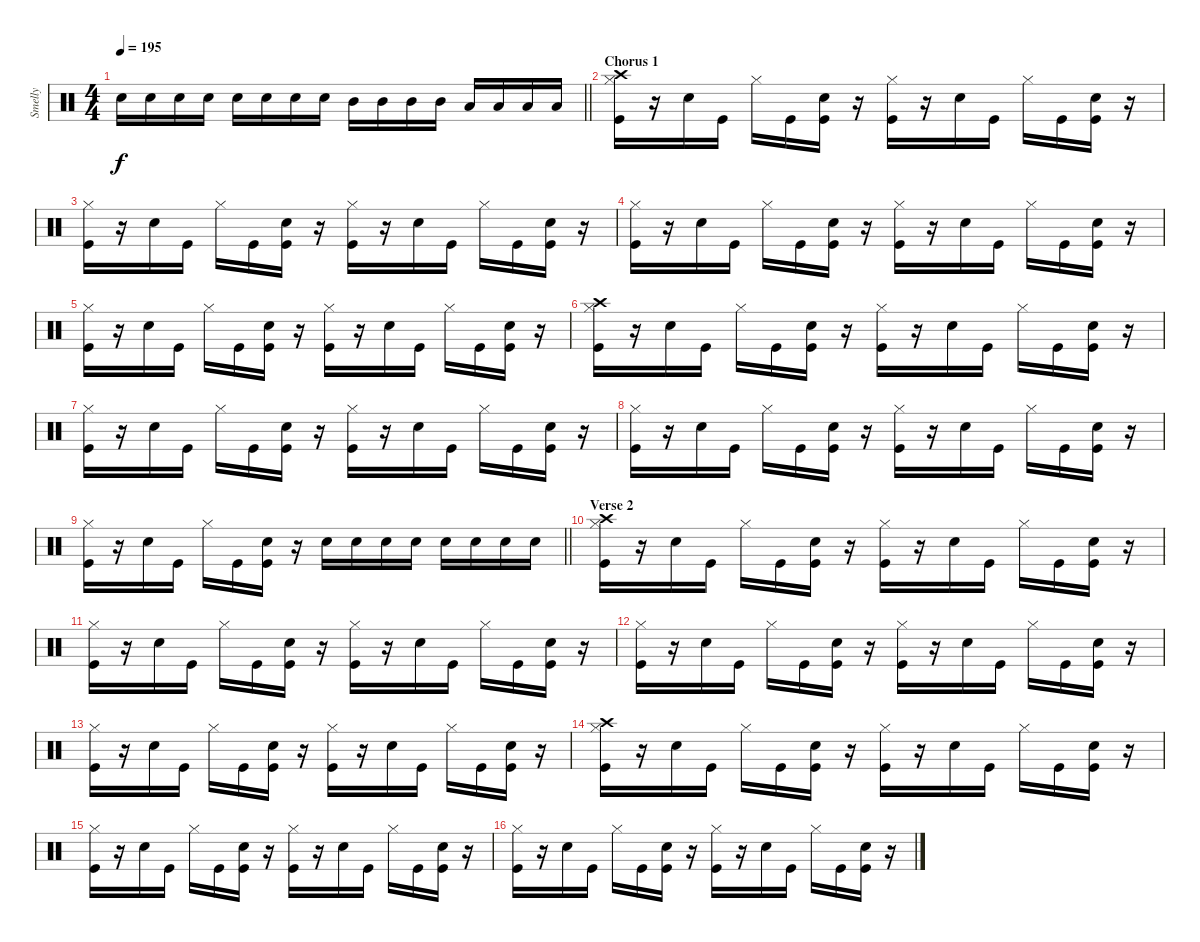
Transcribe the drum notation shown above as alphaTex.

\track ("Smelly" "Smelly") {instrument percussion}
\staff {score}
\articulation defaults
\ts (4 4)
\tempo 195
\clef neutral
\barLineRight lightlight
\ks c "Snare (hit) 2".16{dy f} "Snare (hit) 2".16 "Snare (hit) 2".16 "Snare (hit) 2".16 "Snare (hit) 2".16 "Snare (hit) 2".16 "Snare (hit) 2".16 "Snare (hit) 2".16 "Mid Tom (hit)".16 "Mid Tom (hit)".16 "Mid Tom (hit)".16 "Mid Tom (hit)".16 "Low Tom (hit)".16 "Low Tom (hit)".16 "Low Tom (hit)".16 "Low Tom (hit)".16
|
\section ("" "Chorus 1")
("Crash high (hit)" "Hi-Hat (closed)" "Kick (hit)").16 r.16 "Snare (hit) 2".16 "Kick (hit)".16 "Hi-Hat (closed)".16 "Kick (hit)".16 ("Snare (hit) 2" "Kick (hit)").16 r.16 ("Hi-Hat (closed)" "Kick (hit)").16 r.16 "Snare (hit) 2".16 "Kick (hit)".16 "Hi-Hat (closed)".16 "Kick (hit)".16 ("Snare (hit) 2" "Kick (hit)").16 r.16 |
("Hi-Hat (closed)" "Kick (hit)").16 r.16 "Snare (hit) 2".16 "Kick (hit)".16 "Hi-Hat (closed)".16 "Kick (hit)".16 ("Snare (hit) 2" "Kick (hit)").16 r.16 ("Hi-Hat (closed)" "Kick (hit)").16 r.16 "Snare (hit) 2".16 "Kick (hit)".16 "Hi-Hat (closed)".16 "Kick (hit)".16 ("Snare (hit) 2" "Kick (hit)").16 r.16 |
("Hi-Hat (closed)" "Kick (hit)").16 r.16 "Snare (hit) 2".16 "Kick (hit)".16 "Hi-Hat (closed)".16 "Kick (hit)".16 ("Snare (hit) 2" "Kick (hit)").16 r.16 ("Hi-Hat (closed)" "Kick (hit)").16 r.16 "Snare (hit) 2".16 "Kick (hit)".16 "Hi-Hat (closed)".16 "Kick (hit)".16 ("Snare (hit) 2" "Kick (hit)").16 r.16 |
("Hi-Hat (closed)" "Kick (hit)").16 r.16 "Snare (hit) 2".16 "Kick (hit)".16 "Hi-Hat (closed)".16 "Kick (hit)".16 ("Snare (hit) 2" "Kick (hit)").16 r.16 ("Hi-Hat (closed)" "Kick (hit)").16 r.16 "Snare (hit) 2".16 "Kick (hit)".16 "Hi-Hat (closed)".16 "Kick (hit)".16 ("Snare (hit) 2" "Kick (hit)").16 r.16 |
("Crash high (hit)" "Hi-Hat (closed)" "Kick (hit)").16 r.16 "Snare (hit) 2".16 "Kick (hit)".16 "Hi-Hat (closed)".16 "Kick (hit)".16 ("Snare (hit) 2" "Kick (hit)").16 r.16 ("Hi-Hat (closed)" "Kick (hit)").16 r.16 "Snare (hit) 2".16 "Kick (hit)".16 "Hi-Hat (closed)".16 "Kick (hit)".16 ("Snare (hit) 2" "Kick (hit)").16 r.16 |
("Hi-Hat (closed)" "Kick (hit)").16 r.16 "Snare (hit) 2".16 "Kick (hit)".16 "Hi-Hat (closed)".16 "Kick (hit)".16 ("Snare (hit) 2" "Kick (hit)").16 r.16 ("Hi-Hat (closed)" "Kick (hit)").16 r.16 "Snare (hit) 2".16 "Kick (hit)".16 "Hi-Hat (closed)".16 "Kick (hit)".16 ("Snare (hit) 2" "Kick (hit)").16 r.16 |
("Hi-Hat (closed)" "Kick (hit)").16 r.16 "Snare (hit) 2".16 "Kick (hit)".16 "Hi-Hat (closed)".16 "Kick (hit)".16 ("Snare (hit) 2" "Kick (hit)").16 r.16 ("Hi-Hat (closed)" "Kick (hit)").16 r.16 "Snare (hit) 2".16 "Kick (hit)".16 "Hi-Hat (closed)".16 "Kick (hit)".16 ("Snare (hit) 2" "Kick (hit)").16 r.16 |
\barLineRight lightlight
("Hi-Hat (closed)" "Kick (hit)").16 r.16 "Snare (hit) 2".16 "Kick (hit)".16 "Hi-Hat (closed)".16 "Kick (hit)".16 ("Snare (hit) 2" "Kick (hit)").16 r.16 "Snare (hit) 2".16 "Snare (hit) 2".16 "Snare (hit) 2".16 "Snare (hit) 2".16 "Snare (hit) 2".16 "Snare (hit) 2".16 "Snare (hit) 2".16 "Snare (hit) 2".16 |
\section ("" "Verse 2")
("Crash high (hit)" "Hi-Hat (closed)" "Kick (hit)").16 r.16 "Snare (hit) 2".16 "Kick (hit)".16 "Hi-Hat (closed)".16 "Kick (hit)".16 ("Snare (hit) 2" "Kick (hit)").16 r.16 ("Hi-Hat (closed)" "Kick (hit)").16 r.16 "Snare (hit) 2".16 "Kick (hit)".16 "Hi-Hat (closed)".16 "Kick (hit)".16 ("Snare (hit) 2" "Kick (hit)").16 r.16 |
("Hi-Hat (closed)" "Kick (hit)").16 r.16 "Snare (hit) 2".16 "Kick (hit)".16 "Hi-Hat (closed)".16 "Kick (hit)".16 ("Snare (hit) 2" "Kick (hit)").16 r.16 ("Hi-Hat (closed)" "Kick (hit)").16 r.16 "Snare (hit) 2".16 "Kick (hit)".16 "Hi-Hat (closed)".16 "Kick (hit)".16 ("Snare (hit) 2" "Kick (hit)").16 r.16 |
("Hi-Hat (closed)" "Kick (hit)").16 r.16 "Snare (hit) 2".16 "Kick (hit)".16 "Hi-Hat (closed)".16 "Kick (hit)".16 ("Snare (hit) 2" "Kick (hit)").16 r.16 ("Hi-Hat (closed)" "Kick (hit)").16 r.16 "Snare (hit) 2".16 "Kick (hit)".16 "Hi-Hat (closed)".16 "Kick (hit)".16 ("Snare (hit) 2" "Kick (hit)").16 r.16 |
("Hi-Hat (closed)" "Kick (hit)").16 r.16 "Snare (hit) 2".16 "Kick (hit)".16 "Hi-Hat (closed)".16 "Kick (hit)".16 ("Snare (hit) 2" "Kick (hit)").16 r.16 ("Hi-Hat (closed)" "Kick (hit)").16 r.16 "Snare (hit) 2".16 "Kick (hit)".16 "Hi-Hat (closed)".16 "Kick (hit)".16 ("Snare (hit) 2" "Kick (hit)").16 r.16 |
("Crash high (hit)" "Hi-Hat (closed)" "Kick (hit)").16 r.16 "Snare (hit) 2".16 "Kick (hit)".16 "Hi-Hat (closed)".16 "Kick (hit)".16 ("Snare (hit) 2" "Kick (hit)").16 r.16 ("Hi-Hat (closed)" "Kick (hit)").16 r.16 "Snare (hit) 2".16 "Kick (hit)".16 "Hi-Hat (closed)".16 "Kick (hit)".16 ("Snare (hit) 2" "Kick (hit)").16 r.16 |
("Hi-Hat (closed)" "Kick (hit)").16 r.16 "Snare (hit) 2".16 "Kick (hit)".16 "Hi-Hat (closed)".16 "Kick (hit)".16 ("Snare (hit) 2" "Kick (hit)").16 r.16 ("Hi-Hat (closed)" "Kick (hit)").16 r.16 "Snare (hit) 2".16 "Kick (hit)".16 "Hi-Hat (closed)".16 "Kick (hit)".16 ("Snare (hit) 2" "Kick (hit)").16 r.16 |
("Hi-Hat (closed)" "Kick (hit)").16 r.16 "Snare (hit) 2".16 "Kick (hit)".16 "Hi-Hat (closed)".16 "Kick (hit)".16 ("Snare (hit) 2" "Kick (hit)").16 r.16 ("Hi-Hat (closed)" "Kick (hit)").16 r.16 "Snare (hit) 2".16 "Kick (hit)".16 "Hi-Hat (closed)".16 "Kick (hit)".16 ("Snare (hit) 2" "Kick (hit)").16 r.16
